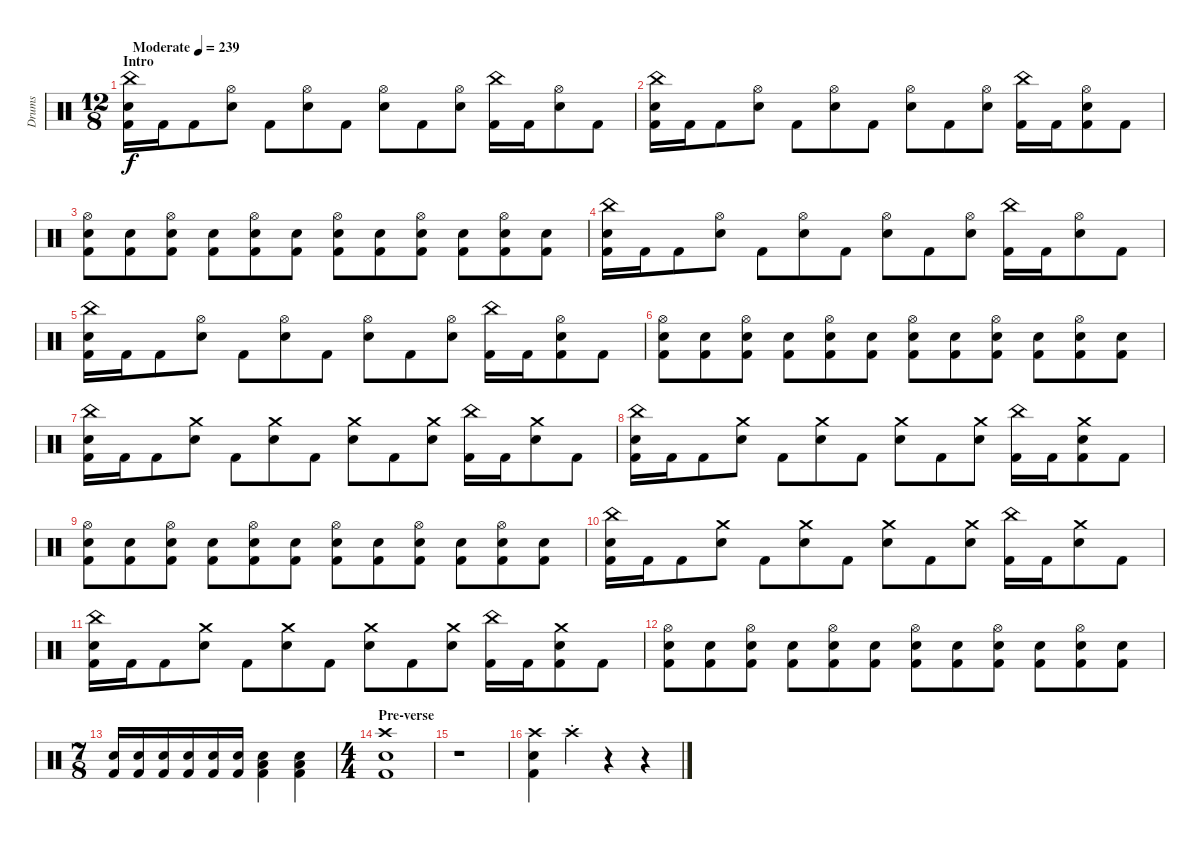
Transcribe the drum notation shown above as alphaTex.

\track ("Drums" "Drums") {instrument percussion}
\staff {score}
\articulation defaults
\ts (12 8)
\section ("" "Intro")
\tempo (239 "Moderate")
\clef neutral
\ks c
("China (hit)" "Electric Snare (hit)" "Kick (hit) 2").16{dy f} "Kick (hit) 2".16 "Kick (hit) 2".8 ("Hi-Hat (open)" "Electric Snare (hit)").8 "Kick (hit) 2".8 ("Hi-Hat (open)" "Electric Snare (hit)").8 "Kick (hit) 2".8 ("Hi-Hat (open)" "Electric Snare (hit)").8 "Kick (hit) 2".8 ("Hi-Hat (open)" "Electric Snare (hit)").8 ("China (hit)" "Kick (hit) 2").16 "Kick (hit) 2".16 ("Hi-Hat (open)" "Electric Snare (hit)").8 "Kick (hit) 2".8 |
("China (hit)" "Electric Snare (hit)" "Kick (hit) 2").16 "Kick (hit) 2".16 "Kick (hit) 2".8 ("Hi-Hat (open)" "Electric Snare (hit)").8 "Kick (hit) 2".8 ("Hi-Hat (open)" "Electric Snare (hit)").8 "Kick (hit) 2".8 ("Hi-Hat (open)" "Electric Snare (hit)").8 "Kick (hit) 2".8 ("Hi-Hat (open)" "Electric Snare (hit)").8 ("China (hit)" "Kick (hit) 2").16 "Kick (hit) 2".16 ("Hi-Hat (open)" "Electric Snare (hit)" "Kick (hit) 2").8 "Kick (hit) 2".8 |
("Hi-Hat (open)" "Electric Snare (hit)" "Kick (hit) 2").8 ("Electric Snare (hit)" "Kick (hit) 2").8 ("Hi-Hat (open)" "Electric Snare (hit)" "Kick (hit) 2").8 ("Electric Snare (hit)" "Kick (hit) 2").8 ("Hi-Hat (open)" "Electric Snare (hit)" "Kick (hit) 2").8 ("Electric Snare (hit)" "Kick (hit) 2").8 ("Hi-Hat (open)" "Electric Snare (hit)" "Kick (hit) 2").8 ("Electric Snare (hit)" "Kick (hit) 2").8 ("Hi-Hat (open)" "Electric Snare (hit)" "Kick (hit) 2").8 ("Electric Snare (hit)" "Kick (hit) 2").8 ("Hi-Hat (open)" "Electric Snare (hit)" "Kick (hit) 2").8 ("Electric Snare (hit)" "Kick (hit) 2").8 |
("China (hit)" "Electric Snare (hit)" "Kick (hit) 2").16 "Kick (hit) 2".16 "Kick (hit) 2".8 ("Hi-Hat (open)" "Electric Snare (hit)").8 "Kick (hit) 2".8 ("Hi-Hat (open)" "Electric Snare (hit)").8 "Kick (hit) 2".8 ("Hi-Hat (open)" "Electric Snare (hit)").8 "Kick (hit) 2".8 ("Hi-Hat (open)" "Electric Snare (hit)").8 ("China (hit)" "Kick (hit) 2").16 "Kick (hit) 2".16 ("Hi-Hat (open)" "Electric Snare (hit)").8 "Kick (hit) 2".8 |
("China (hit)" "Electric Snare (hit)" "Kick (hit) 2").16 "Kick (hit) 2".16 "Kick (hit) 2".8 ("Hi-Hat (open)" "Electric Snare (hit)").8 "Kick (hit) 2".8 ("Hi-Hat (open)" "Electric Snare (hit)").8 "Kick (hit) 2".8 ("Hi-Hat (open)" "Electric Snare (hit)").8 "Kick (hit) 2".8 ("Hi-Hat (open)" "Electric Snare (hit)").8 ("China (hit)" "Kick (hit) 2").16 "Kick (hit) 2".16 ("Hi-Hat (open)" "Electric Snare (hit)" "Kick (hit) 2").8 "Kick (hit) 2".8 |
("Hi-Hat (open)" "Electric Snare (hit)" "Kick (hit) 2").8 ("Electric Snare (hit)" "Kick (hit) 2").8 ("Hi-Hat (open)" "Electric Snare (hit)" "Kick (hit) 2").8 ("Electric Snare (hit)" "Kick (hit) 2").8 ("Hi-Hat (open)" "Electric Snare (hit)" "Kick (hit) 2").8 ("Electric Snare (hit)" "Kick (hit) 2").8 ("Hi-Hat (open)" "Electric Snare (hit)" "Kick (hit) 2").8 ("Electric Snare (hit)" "Kick (hit) 2").8 ("Hi-Hat (open)" "Electric Snare (hit)" "Kick (hit) 2").8 ("Electric Snare (hit)" "Kick (hit) 2").8 ("Hi-Hat (open)" "Electric Snare (hit)" "Kick (hit) 2").8 ("Electric Snare (hit)" "Kick (hit) 2").8 |
("China (hit)" "Electric Snare (hit)" "Kick (hit) 2").16 "Kick (hit) 2".16 "Kick (hit) 2".8 ("Crash medium (hit)" "Electric Snare (hit)").8 "Kick (hit) 2".8 ("Crash medium (hit)" "Electric Snare (hit)").8 "Kick (hit) 2".8 ("Crash medium (hit)" "Electric Snare (hit)").8 "Kick (hit) 2".8 ("Crash medium (hit)" "Electric Snare (hit)").8 ("China (hit)" "Kick (hit) 2").16 "Kick (hit) 2".16 ("Crash medium (hit)" "Electric Snare (hit)").8 "Kick (hit) 2".8 |
("China (hit)" "Electric Snare (hit)" "Kick (hit) 2").16 "Kick (hit) 2".16 "Kick (hit) 2".8 ("Crash medium (hit)" "Electric Snare (hit)").8 "Kick (hit) 2".8 ("Crash medium (hit)" "Electric Snare (hit)").8 "Kick (hit) 2".8 ("Crash medium (hit)" "Electric Snare (hit)").8 "Kick (hit) 2".8 ("Crash medium (hit)" "Electric Snare (hit)").8 ("China (hit)" "Kick (hit) 2").16 "Kick (hit) 2".16 ("Crash medium (hit)" "Electric Snare (hit)" "Kick (hit) 2").8 "Kick (hit) 2".8 |
("Hi-Hat (open)" "Electric Snare (hit)" "Kick (hit) 2").8 ("Electric Snare (hit)" "Kick (hit) 2").8 ("Hi-Hat (open)" "Electric Snare (hit)" "Kick (hit) 2").8 ("Electric Snare (hit)" "Kick (hit) 2").8 ("Hi-Hat (open)" "Electric Snare (hit)" "Kick (hit) 2").8 ("Electric Snare (hit)" "Kick (hit) 2").8 ("Hi-Hat (open)" "Electric Snare (hit)" "Kick (hit) 2").8 ("Electric Snare (hit)" "Kick (hit) 2").8 ("Hi-Hat (open)" "Electric Snare (hit)" "Kick (hit) 2").8 ("Electric Snare (hit)" "Kick (hit) 2").8 ("Hi-Hat (open)" "Electric Snare (hit)" "Kick (hit) 2").8 ("Electric Snare (hit)" "Kick (hit) 2").8 |
("China (hit)" "Electric Snare (hit)" "Kick (hit) 2").16 "Kick (hit) 2".16 "Kick (hit) 2".8 ("Crash medium (hit)" "Electric Snare (hit)").8 "Kick (hit) 2".8 ("Crash medium (hit)" "Electric Snare (hit)").8 "Kick (hit) 2".8 ("Crash medium (hit)" "Electric Snare (hit)").8 "Kick (hit) 2".8 ("Crash medium (hit)" "Electric Snare (hit)").8 ("China (hit)" "Kick (hit) 2").16 "Kick (hit) 2".16 ("Crash medium (hit)" "Electric Snare (hit)").8 "Kick (hit) 2".8 |
("China (hit)" "Electric Snare (hit)" "Kick (hit) 2").16 "Kick (hit) 2".16 "Kick (hit) 2".8 ("Crash medium (hit)" "Electric Snare (hit)").8 "Kick (hit) 2".8 ("Crash medium (hit)" "Electric Snare (hit)").8 "Kick (hit) 2".8 ("Crash medium (hit)" "Electric Snare (hit)").8 "Kick (hit) 2".8 ("Crash medium (hit)" "Electric Snare (hit)").8 ("China (hit)" "Kick (hit) 2").16 "Kick (hit) 2".16 ("Crash medium (hit)" "Electric Snare (hit)" "Kick (hit) 2").8 "Kick (hit) 2".8 |
("Hi-Hat (open)" "Electric Snare (hit)" "Kick (hit) 2").8 ("Electric Snare (hit)" "Kick (hit) 2").8 ("Hi-Hat (open)" "Electric Snare (hit)" "Kick (hit) 2").8 ("Electric Snare (hit)" "Kick (hit) 2").8 ("Hi-Hat (open)" "Electric Snare (hit)" "Kick (hit) 2").8 ("Electric Snare (hit)" "Kick (hit) 2").8 ("Hi-Hat (open)" "Electric Snare (hit)" "Kick (hit) 2").8 ("Electric Snare (hit)" "Kick (hit) 2").8 ("Hi-Hat (open)" "Electric Snare (hit)" "Kick (hit) 2").8 ("Electric Snare (hit)" "Kick (hit) 2").8 ("Hi-Hat (open)" "Electric Snare (hit)" "Kick (hit) 2").8 ("Electric Snare (hit)" "Kick (hit) 2").8 |
\ts (7 8)
("Electric Snare (hit)" "Kick (hit) 2").16 ("Electric Snare (hit)" "Kick (hit) 2").16 ("Electric Snare (hit)" "Kick (hit) 2").16 ("Electric Snare (hit)" "Kick (hit) 2").16 ("Electric Snare (hit)" "Kick (hit) 2").16 ("Electric Snare (hit)" "Kick (hit) 2").16 ("Low Tom (hit)" "Electric Snare (hit)" "Kick (hit) 2").4 ("Low Tom (hit)" "Electric Snare (hit)" "Kick (hit) 2").4 |
\ts (4 4)
\section ("" "Pre-verse")
("Crash high (hit)" "Electric Snare (hit)" "Kick (hit) 2").1 |
r.1 |
("Crash high (hit)" "Electric Snare (hit)" "Kick (hit) 2").4 "Crash high (hit)"{st}.4 r.4 r.4
